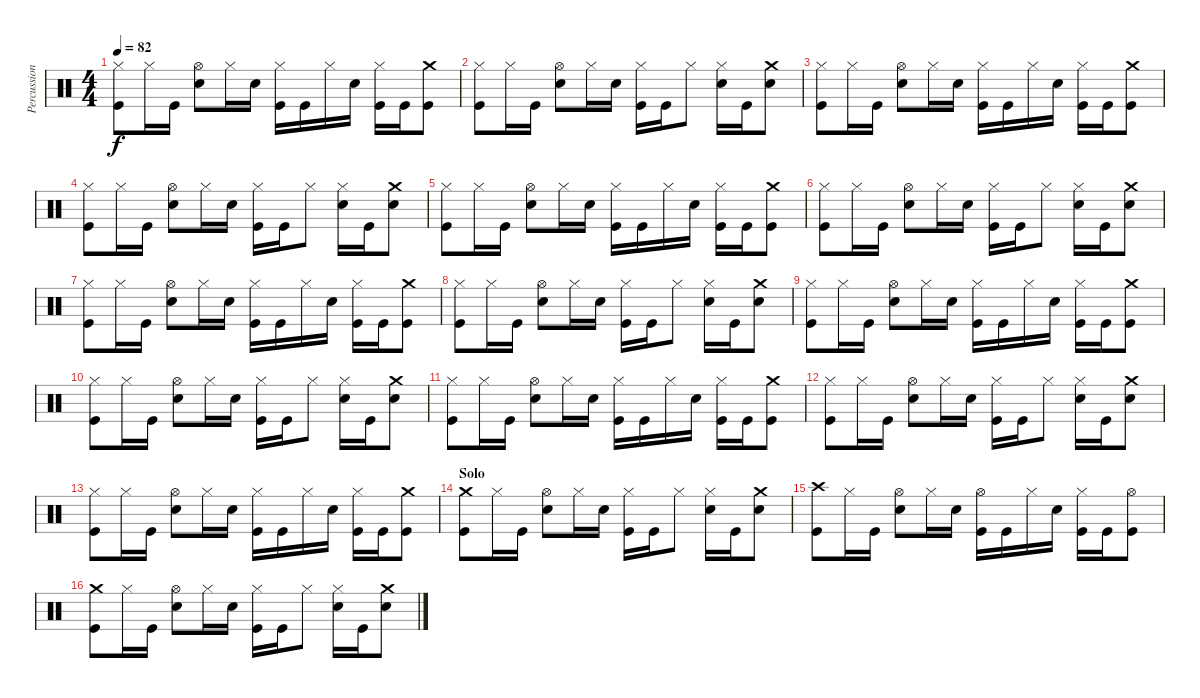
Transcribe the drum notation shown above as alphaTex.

\track ("Percussion" "Percussion") {instrument percussion}
\staff {score}
\articulation defaults
\ts (4 4)
\tempo 82
\clef neutral
\ks c
("Hi-Hat (closed)" "Kick (hit)").8{dy f} "Hi-Hat (closed)".16 "Kick (hit)".16 ("Hi-Hat (open)" "Snare (hit) 2").8 "Hi-Hat (closed)".16 "Snare (hit) 2".16 ("Hi-Hat (closed)" "Kick (hit)").16 "Kick (hit)".16 "Hi-Hat (closed)".16 "Snare (hit) 2".16 ("Hi-Hat (closed)" "Kick (hit)").16 "Kick (hit)".16 ("Crash medium (hit)" "Kick (hit)").8 |
("Hi-Hat (closed)" "Kick (hit)").8 "Hi-Hat (closed)".16 "Kick (hit)".16 ("Hi-Hat (open)" "Snare (hit) 2").8 "Hi-Hat (closed)".16 "Snare (hit) 2".16 ("Hi-Hat (closed)" "Kick (hit)").16 "Kick (hit)".16 "Hi-Hat (closed)".8 ("Hi-Hat (closed)" "Snare (hit) 2").16 "Kick (hit)".16 ("Crash medium (hit)" "Snare (hit) 2").8 |
("Hi-Hat (closed)" "Kick (hit)").8 "Hi-Hat (closed)".16 "Kick (hit)".16 ("Hi-Hat (open)" "Snare (hit) 2").8 "Hi-Hat (closed)".16 "Snare (hit) 2".16 ("Hi-Hat (closed)" "Kick (hit)").16 "Kick (hit)".16 "Hi-Hat (closed)".16 "Snare (hit) 2".16 ("Hi-Hat (closed)" "Kick (hit)").16 "Kick (hit)".16 ("Crash medium (hit)" "Kick (hit)").8 |
("Hi-Hat (closed)" "Kick (hit)").8 "Hi-Hat (closed)".16 "Kick (hit)".16 ("Hi-Hat (open)" "Snare (hit) 2").8 "Hi-Hat (closed)".16 "Snare (hit) 2".16 ("Hi-Hat (closed)" "Kick (hit)").16 "Kick (hit)".16 "Hi-Hat (closed)".8 ("Hi-Hat (closed)" "Snare (hit) 2").16 "Kick (hit)".16 ("Crash medium (hit)" "Snare (hit) 2").8 |
("Hi-Hat (closed)" "Kick (hit)").8 "Hi-Hat (closed)".16 "Kick (hit)".16 ("Hi-Hat (open)" "Snare (hit) 2").8 "Hi-Hat (closed)".16 "Snare (hit) 2".16 ("Hi-Hat (closed)" "Kick (hit)").16 "Kick (hit)".16 "Hi-Hat (closed)".16 "Snare (hit) 2".16 ("Hi-Hat (closed)" "Kick (hit)").16 "Kick (hit)".16 ("Crash medium (hit)" "Kick (hit)").8 |
("Hi-Hat (closed)" "Kick (hit)").8 "Hi-Hat (closed)".16 "Kick (hit)".16 ("Hi-Hat (open)" "Snare (hit) 2").8 "Hi-Hat (closed)".16 "Snare (hit) 2".16 ("Hi-Hat (closed)" "Kick (hit)").16 "Kick (hit)".16 "Hi-Hat (closed)".8 ("Hi-Hat (closed)" "Snare (hit) 2").16 "Kick (hit)".16 ("Crash medium (hit)" "Snare (hit) 2").8 |
("Hi-Hat (closed)" "Kick (hit)").8 "Hi-Hat (closed)".16 "Kick (hit)".16 ("Hi-Hat (open)" "Snare (hit) 2").8 "Hi-Hat (closed)".16 "Snare (hit) 2".16 ("Hi-Hat (closed)" "Kick (hit)").16 "Kick (hit)".16 "Hi-Hat (closed)".16 "Snare (hit) 2".16 ("Hi-Hat (closed)" "Kick (hit)").16 "Kick (hit)".16 ("Crash medium (hit)" "Kick (hit)").8 |
("Hi-Hat (closed)" "Kick (hit)").8 "Hi-Hat (closed)".16 "Kick (hit)".16 ("Hi-Hat (open)" "Snare (hit) 2").8 "Hi-Hat (closed)".16 "Snare (hit) 2".16 ("Hi-Hat (closed)" "Kick (hit)").16 "Kick (hit)".16 "Hi-Hat (closed)".8 ("Hi-Hat (closed)" "Snare (hit) 2").16 "Kick (hit)".16 ("Crash medium (hit)" "Snare (hit) 2").8 |
("Hi-Hat (closed)" "Kick (hit)").8 "Hi-Hat (closed)".16 "Kick (hit)".16 ("Hi-Hat (open)" "Snare (hit) 2").8 "Hi-Hat (closed)".16 "Snare (hit) 2".16 ("Hi-Hat (closed)" "Kick (hit)").16 "Kick (hit)".16 "Hi-Hat (closed)".16 "Snare (hit) 2".16 ("Hi-Hat (closed)" "Kick (hit)").16 "Kick (hit)".16 ("Crash medium (hit)" "Kick (hit)").8 |
("Hi-Hat (closed)" "Kick (hit)").8 "Hi-Hat (closed)".16 "Kick (hit)".16 ("Hi-Hat (open)" "Snare (hit) 2").8 "Hi-Hat (closed)".16 "Snare (hit) 2".16 ("Hi-Hat (closed)" "Kick (hit)").16 "Kick (hit)".16 "Hi-Hat (closed)".8 ("Hi-Hat (closed)" "Snare (hit) 2").16 "Kick (hit)".16 ("Crash medium (hit)" "Snare (hit) 2").8 |
("Hi-Hat (closed)" "Kick (hit)").8 "Hi-Hat (closed)".16 "Kick (hit)".16 ("Hi-Hat (open)" "Snare (hit) 2").8 "Hi-Hat (closed)".16 "Snare (hit) 2".16 ("Hi-Hat (closed)" "Kick (hit)").16 "Kick (hit)".16 "Hi-Hat (closed)".16 "Snare (hit) 2".16 ("Hi-Hat (closed)" "Kick (hit)").16 "Kick (hit)".16 ("Crash medium (hit)" "Kick (hit)").8 |
("Hi-Hat (closed)" "Kick (hit)").8 "Hi-Hat (closed)".16 "Kick (hit)".16 ("Hi-Hat (open)" "Snare (hit) 2").8 "Hi-Hat (closed)".16 "Snare (hit) 2".16 ("Hi-Hat (closed)" "Kick (hit)").16 "Kick (hit)".16 "Hi-Hat (closed)".8 ("Hi-Hat (closed)" "Snare (hit) 2").16 "Kick (hit)".16 ("Crash medium (hit)" "Snare (hit) 2").8 |
("Hi-Hat (closed)" "Kick (hit)").8 "Hi-Hat (closed)".16 "Kick (hit)".16 ("Hi-Hat (open)" "Snare (hit) 2").8 "Hi-Hat (closed)".16 "Snare (hit) 2".16 ("Hi-Hat (closed)" "Kick (hit)").16 "Kick (hit)".16 "Hi-Hat (closed)".16 "Snare (hit) 2".16 ("Hi-Hat (closed)" "Kick (hit)").16 "Kick (hit)".16 ("Crash medium (hit)" "Kick (hit)").8 |
\section ("" "Solo")
("Crash medium (hit)" "Kick (hit)").8 "Hi-Hat (closed)".16 "Kick (hit)".16 ("Hi-Hat (open)" "Snare (hit) 2").8 "Hi-Hat (closed)".16 "Snare (hit) 2".16 ("Hi-Hat (closed)" "Kick (hit)").16 "Kick (hit)".16 "Hi-Hat (closed)".8 ("Hi-Hat (closed)" "Snare (hit) 2").16 "Kick (hit)".16 ("Crash medium (hit)" "Snare (hit) 2").8 |
("Crash high (hit)" "Kick (hit)").8 "Hi-Hat (closed)".16 "Kick (hit)".16 ("Hi-Hat (open)" "Snare (hit) 2").8 "Hi-Hat (closed)".16 "Snare (hit) 2".16 ("Hi-Hat (open)" "Kick (hit)").16 "Kick (hit)".16 "Hi-Hat (closed)".16 "Snare (hit) 2".16 ("Hi-Hat (closed)" "Kick (hit)").16 "Kick (hit)".16 ("Hi-Hat (open)" "Kick (hit)").8 |
("Crash medium (hit)" "Kick (hit)").8 "Hi-Hat (closed)".16 "Kick (hit)".16 ("Hi-Hat (open)" "Snare (hit) 2").8 "Hi-Hat (closed)".16 "Snare (hit) 2".16 ("Hi-Hat (closed)" "Kick (hit)").16 "Kick (hit)".16 "Hi-Hat (closed)".8 ("Hi-Hat (closed)" "Snare (hit) 2").16 "Kick (hit)".16 ("Crash medium (hit)" "Snare (hit) 2").8
